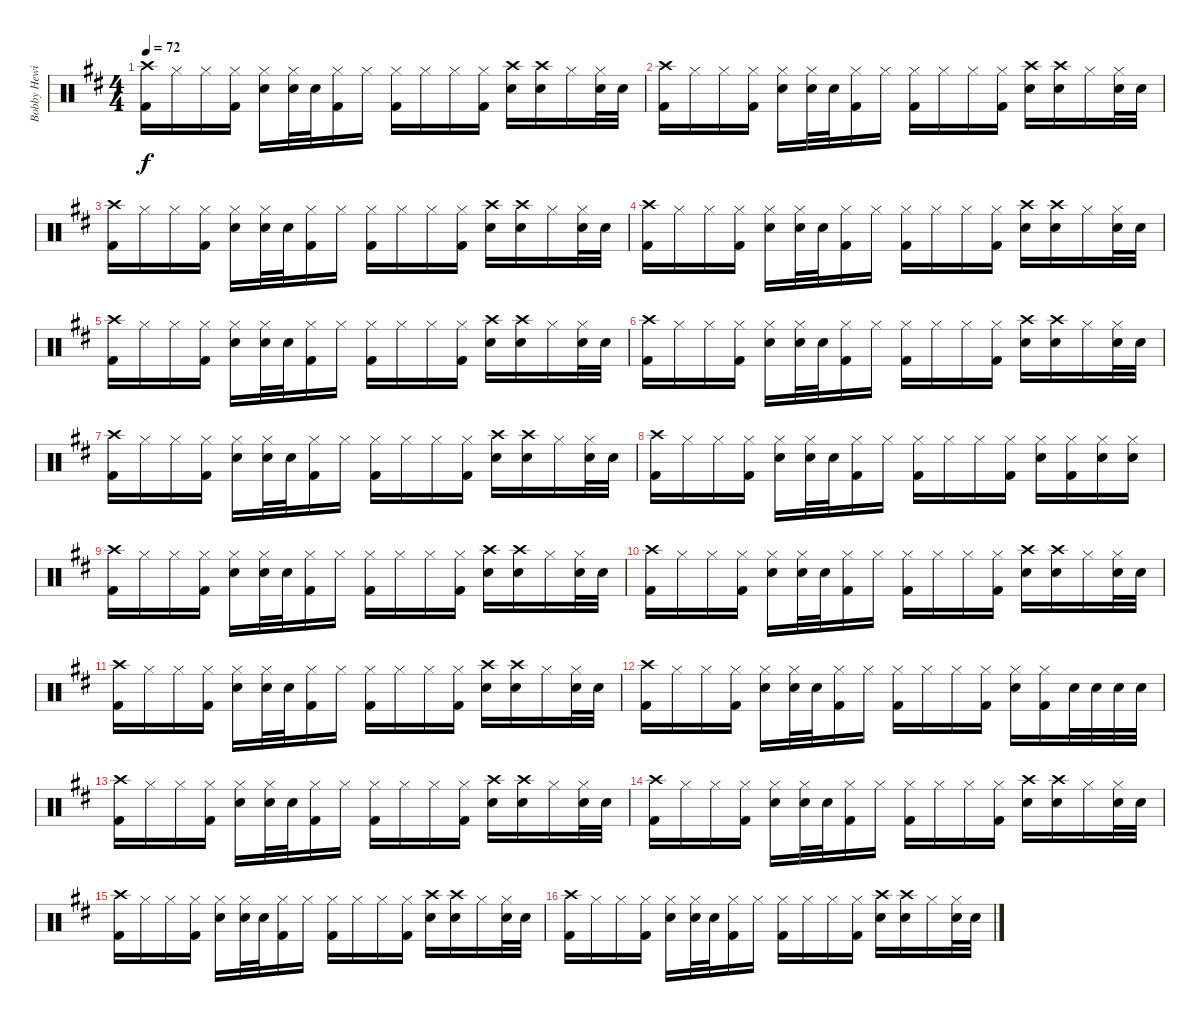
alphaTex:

\track ("Bobby Hewitt (Roland V-Drums)" "Bobby Hewi") {instrument percussion}
\staff {score}
\articulation defaults
\ts (4 4)
\tempo 72
\clef neutral
\ks d
("Crash high (hit)" "Kick (hit) 2").16{dy f} "Hi-Hat (closed)".16 "Hi-Hat (closed)".16 ("Hi-Hat (closed)" "Kick (hit) 2").16 ("Hi-Hat (closed)" "Electric Snare (hit)").16 ("Hi-Hat (closed)" "Electric Snare (hit)").32 "Electric Snare (hit)".32 ("Hi-Hat (closed)" "Kick (hit) 2").16 "Hi-Hat (closed)".16 ("Hi-Hat (closed)" "Kick (hit) 2").16 "Hi-Hat (closed)".16 "Hi-Hat (closed)".16 ("Hi-Hat (closed)" "Kick (hit) 2").16 ("Crash high (hit)" "Electric Snare (hit)").16 ("Crash high (hit)" "Electric Snare (hit)").16 "Hi-Hat (closed)".16 ("Hi-Hat (closed)" "Electric Snare (hit)").32 "Electric Snare (hit)".32 |
("Crash high (hit)" "Kick (hit) 2").16 "Hi-Hat (closed)".16 "Hi-Hat (closed)".16 ("Hi-Hat (closed)" "Kick (hit) 2").16 ("Hi-Hat (closed)" "Electric Snare (hit)").16 ("Hi-Hat (closed)" "Electric Snare (hit)").32 "Electric Snare (hit)".32 ("Hi-Hat (closed)" "Kick (hit) 2").16 "Hi-Hat (closed)".16 ("Hi-Hat (closed)" "Kick (hit) 2").16 "Hi-Hat (closed)".16 "Hi-Hat (closed)".16 ("Hi-Hat (closed)" "Kick (hit) 2").16 ("Crash high (hit)" "Electric Snare (hit)").16 ("Crash high (hit)" "Electric Snare (hit)").16 "Hi-Hat (closed)".16 ("Hi-Hat (closed)" "Electric Snare (hit)").32 "Electric Snare (hit)".32 |
("Crash high (hit)" "Kick (hit) 2").16 "Hi-Hat (closed)".16 "Hi-Hat (closed)".16 ("Hi-Hat (closed)" "Kick (hit) 2").16 ("Hi-Hat (closed)" "Electric Snare (hit)").16 ("Hi-Hat (closed)" "Electric Snare (hit)").32 "Electric Snare (hit)".32 ("Hi-Hat (closed)" "Kick (hit) 2").16 "Hi-Hat (closed)".16 ("Hi-Hat (closed)" "Kick (hit) 2").16 "Hi-Hat (closed)".16 "Hi-Hat (closed)".16 ("Hi-Hat (closed)" "Kick (hit) 2").16 ("Crash high (hit)" "Electric Snare (hit)").16 ("Crash high (hit)" "Electric Snare (hit)").16 "Hi-Hat (closed)".16 ("Hi-Hat (closed)" "Electric Snare (hit)").32 "Electric Snare (hit)".32 |
("Crash high (hit)" "Kick (hit) 2").16 "Hi-Hat (closed)".16 "Hi-Hat (closed)".16 ("Hi-Hat (closed)" "Kick (hit) 2").16 ("Hi-Hat (closed)" "Electric Snare (hit)").16 ("Hi-Hat (closed)" "Electric Snare (hit)").32 "Electric Snare (hit)".32 ("Hi-Hat (closed)" "Kick (hit) 2").16 "Hi-Hat (closed)".16 ("Hi-Hat (closed)" "Kick (hit) 2").16 "Hi-Hat (closed)".16 "Hi-Hat (closed)".16 ("Hi-Hat (closed)" "Kick (hit) 2").16 ("Crash high (hit)" "Electric Snare (hit)").16 ("Crash high (hit)" "Electric Snare (hit)").16 "Hi-Hat (closed)".16 ("Hi-Hat (closed)" "Electric Snare (hit)").32 "Electric Snare (hit)".32 |
("Crash high (hit)" "Kick (hit) 2").16 "Hi-Hat (closed)".16 "Hi-Hat (closed)".16 ("Hi-Hat (closed)" "Kick (hit) 2").16 ("Hi-Hat (closed)" "Electric Snare (hit)").16 ("Hi-Hat (closed)" "Electric Snare (hit)").32 "Electric Snare (hit)".32 ("Hi-Hat (closed)" "Kick (hit) 2").16 "Hi-Hat (closed)".16 ("Hi-Hat (closed)" "Kick (hit) 2").16 "Hi-Hat (closed)".16 "Hi-Hat (closed)".16 ("Hi-Hat (closed)" "Kick (hit) 2").16 ("Crash high (hit)" "Electric Snare (hit)").16 ("Crash high (hit)" "Electric Snare (hit)").16 "Hi-Hat (closed)".16 ("Hi-Hat (closed)" "Electric Snare (hit)").32 "Electric Snare (hit)".32 |
("Crash high (hit)" "Kick (hit) 2").16 "Hi-Hat (closed)".16 "Hi-Hat (closed)".16 ("Hi-Hat (closed)" "Kick (hit) 2").16 ("Hi-Hat (closed)" "Electric Snare (hit)").16 ("Hi-Hat (closed)" "Electric Snare (hit)").32 "Electric Snare (hit)".32 ("Hi-Hat (closed)" "Kick (hit) 2").16 "Hi-Hat (closed)".16 ("Hi-Hat (closed)" "Kick (hit) 2").16 "Hi-Hat (closed)".16 "Hi-Hat (closed)".16 ("Hi-Hat (closed)" "Kick (hit) 2").16 ("Crash high (hit)" "Electric Snare (hit)").16 ("Crash high (hit)" "Electric Snare (hit)").16 "Hi-Hat (closed)".16 ("Hi-Hat (closed)" "Electric Snare (hit)").32 "Electric Snare (hit)".32 |
("Crash high (hit)" "Kick (hit) 2").16 "Hi-Hat (closed)".16 "Hi-Hat (closed)".16 ("Hi-Hat (closed)" "Kick (hit) 2").16 ("Hi-Hat (closed)" "Electric Snare (hit)").16 ("Hi-Hat (closed)" "Electric Snare (hit)").32 "Electric Snare (hit)".32 ("Hi-Hat (closed)" "Kick (hit) 2").16 "Hi-Hat (closed)".16 ("Hi-Hat (closed)" "Kick (hit) 2").16 "Hi-Hat (closed)".16 "Hi-Hat (closed)".16 ("Hi-Hat (closed)" "Kick (hit) 2").16 ("Crash high (hit)" "Electric Snare (hit)").16 ("Crash high (hit)" "Electric Snare (hit)").16 "Hi-Hat (closed)".16 ("Hi-Hat (closed)" "Electric Snare (hit)").32 "Electric Snare (hit)".32 |
("Crash high (hit)" "Kick (hit) 2").16 "Hi-Hat (closed)".16 "Hi-Hat (closed)".16 ("Hi-Hat (closed)" "Kick (hit) 2").16 ("Hi-Hat (closed)" "Electric Snare (hit)").16 ("Hi-Hat (closed)" "Electric Snare (hit)").32 "Electric Snare (hit)".32 ("Hi-Hat (closed)" "Kick (hit) 2").16 "Hi-Hat (closed)".16 ("Hi-Hat (closed)" "Kick (hit) 2").16 "Hi-Hat (closed)".16 "Hi-Hat (closed)".16 ("Hi-Hat (closed)" "Kick (hit) 2").16 ("Hi-Hat (closed)" "Electric Snare (hit)").16 ("Hi-Hat (closed)" "Kick (hit) 2").16 ("Hi-Hat (closed)" "Electric Snare (hit)").16 ("Hi-Hat (closed)" "Electric Snare (hit)").16 |
("Crash high (hit)" "Kick (hit) 2").16 "Hi-Hat (closed)".16 "Hi-Hat (closed)".16 ("Hi-Hat (closed)" "Kick (hit) 2").16 ("Hi-Hat (closed)" "Electric Snare (hit)").16 ("Hi-Hat (closed)" "Electric Snare (hit)").32 "Electric Snare (hit)".32 ("Hi-Hat (closed)" "Kick (hit) 2").16 "Hi-Hat (closed)".16 ("Hi-Hat (closed)" "Kick (hit) 2").16 "Hi-Hat (closed)".16 "Hi-Hat (closed)".16 ("Hi-Hat (closed)" "Kick (hit) 2").16 ("Crash high (hit)" "Electric Snare (hit)").16 ("Crash high (hit)" "Electric Snare (hit)").16 "Hi-Hat (closed)".16 ("Hi-Hat (closed)" "Electric Snare (hit)").32 "Electric Snare (hit)".32 |
("Crash high (hit)" "Kick (hit) 2").16 "Hi-Hat (closed)".16 "Hi-Hat (closed)".16 ("Hi-Hat (closed)" "Kick (hit) 2").16 ("Hi-Hat (closed)" "Electric Snare (hit)").16 ("Hi-Hat (closed)" "Electric Snare (hit)").32 "Electric Snare (hit)".32 ("Hi-Hat (closed)" "Kick (hit) 2").16 "Hi-Hat (closed)".16 ("Hi-Hat (closed)" "Kick (hit) 2").16 "Hi-Hat (closed)".16 "Hi-Hat (closed)".16 ("Hi-Hat (closed)" "Kick (hit) 2").16 ("Crash high (hit)" "Electric Snare (hit)").16 ("Crash high (hit)" "Electric Snare (hit)").16 "Hi-Hat (closed)".16 ("Hi-Hat (closed)" "Electric Snare (hit)").32 "Electric Snare (hit)".32 |
("Crash high (hit)" "Kick (hit) 2").16 "Hi-Hat (closed)".16 "Hi-Hat (closed)".16 ("Hi-Hat (closed)" "Kick (hit) 2").16 ("Hi-Hat (closed)" "Electric Snare (hit)").16 ("Hi-Hat (closed)" "Electric Snare (hit)").32 "Electric Snare (hit)".32 ("Hi-Hat (closed)" "Kick (hit) 2").16 "Hi-Hat (closed)".16 ("Hi-Hat (closed)" "Kick (hit) 2").16 "Hi-Hat (closed)".16 "Hi-Hat (closed)".16 ("Hi-Hat (closed)" "Kick (hit) 2").16 ("Crash high (hit)" "Electric Snare (hit)").16 ("Crash high (hit)" "Electric Snare (hit)").16 "Hi-Hat (closed)".16 ("Hi-Hat (closed)" "Electric Snare (hit)").32 "Electric Snare (hit)".32 |
("Crash high (hit)" "Kick (hit) 2").16 "Hi-Hat (closed)".16 "Hi-Hat (closed)".16 ("Hi-Hat (closed)" "Kick (hit) 2").16 ("Hi-Hat (closed)" "Electric Snare (hit)").16 ("Hi-Hat (closed)" "Electric Snare (hit)").32 "Electric Snare (hit)".32 ("Hi-Hat (closed)" "Kick (hit) 2").16 "Hi-Hat (closed)".16 ("Hi-Hat (closed)" "Kick (hit) 2").16 "Hi-Hat (closed)".16 "Hi-Hat (closed)".16 ("Hi-Hat (closed)" "Kick (hit) 2").16 ("Hi-Hat (closed)" "Electric Snare (hit)").16 ("Hi-Hat (closed)" "Kick (hit) 2").16 "Electric Snare (hit)".32 "Electric Snare (hit)".32 "Electric Snare (hit)".32 "Electric Snare (hit)".32 |
("Crash high (hit)" "Kick (hit) 2").16 "Hi-Hat (closed)".16 "Hi-Hat (closed)".16 ("Hi-Hat (closed)" "Kick (hit) 2").16 ("Hi-Hat (closed)" "Electric Snare (hit)").16 ("Hi-Hat (closed)" "Electric Snare (hit)").32 "Electric Snare (hit)".32 ("Hi-Hat (closed)" "Kick (hit) 2").16 "Hi-Hat (closed)".16 ("Hi-Hat (closed)" "Kick (hit) 2").16 "Hi-Hat (closed)".16 "Hi-Hat (closed)".16 ("Hi-Hat (closed)" "Kick (hit) 2").16 ("Crash high (hit)" "Electric Snare (hit)").16 ("Crash high (hit)" "Electric Snare (hit)").16 "Hi-Hat (closed)".16 ("Hi-Hat (closed)" "Electric Snare (hit)").32 "Electric Snare (hit)".32 |
("Crash high (hit)" "Kick (hit) 2").16 "Hi-Hat (closed)".16 "Hi-Hat (closed)".16 ("Hi-Hat (closed)" "Kick (hit) 2").16 ("Hi-Hat (closed)" "Electric Snare (hit)").16 ("Hi-Hat (closed)" "Electric Snare (hit)").32 "Electric Snare (hit)".32 ("Hi-Hat (closed)" "Kick (hit) 2").16 "Hi-Hat (closed)".16 ("Hi-Hat (closed)" "Kick (hit) 2").16 "Hi-Hat (closed)".16 "Hi-Hat (closed)".16 ("Hi-Hat (closed)" "Kick (hit) 2").16 ("Crash high (hit)" "Electric Snare (hit)").16 ("Crash high (hit)" "Electric Snare (hit)").16 "Hi-Hat (closed)".16 ("Hi-Hat (closed)" "Electric Snare (hit)").32 "Electric Snare (hit)".32 |
("Crash high (hit)" "Kick (hit) 2").16 "Hi-Hat (closed)".16 "Hi-Hat (closed)".16 ("Hi-Hat (closed)" "Kick (hit) 2").16 ("Hi-Hat (closed)" "Electric Snare (hit)").16 ("Hi-Hat (closed)" "Electric Snare (hit)").32 "Electric Snare (hit)".32 ("Hi-Hat (closed)" "Kick (hit) 2").16 "Hi-Hat (closed)".16 ("Hi-Hat (closed)" "Kick (hit) 2").16 "Hi-Hat (closed)".16 "Hi-Hat (closed)".16 ("Hi-Hat (closed)" "Kick (hit) 2").16 ("Crash high (hit)" "Electric Snare (hit)").16 ("Crash high (hit)" "Electric Snare (hit)").16 "Hi-Hat (closed)".16 ("Hi-Hat (closed)" "Electric Snare (hit)").32 "Electric Snare (hit)".32 |
("Crash high (hit)" "Kick (hit) 2").16 "Hi-Hat (closed)".16 "Hi-Hat (closed)".16 ("Hi-Hat (closed)" "Kick (hit) 2").16 ("Hi-Hat (closed)" "Electric Snare (hit)").16 ("Hi-Hat (closed)" "Electric Snare (hit)").32 "Electric Snare (hit)".32 ("Hi-Hat (closed)" "Kick (hit) 2").16 "Hi-Hat (closed)".16 ("Hi-Hat (closed)" "Kick (hit) 2").16 "Hi-Hat (closed)".16 "Hi-Hat (closed)".16 ("Hi-Hat (closed)" "Kick (hit) 2").16 ("Crash high (hit)" "Electric Snare (hit)").16 ("Crash high (hit)" "Electric Snare (hit)").16 "Hi-Hat (closed)".16 ("Hi-Hat (closed)" "Electric Snare (hit)").32 "Electric Snare (hit)".32
